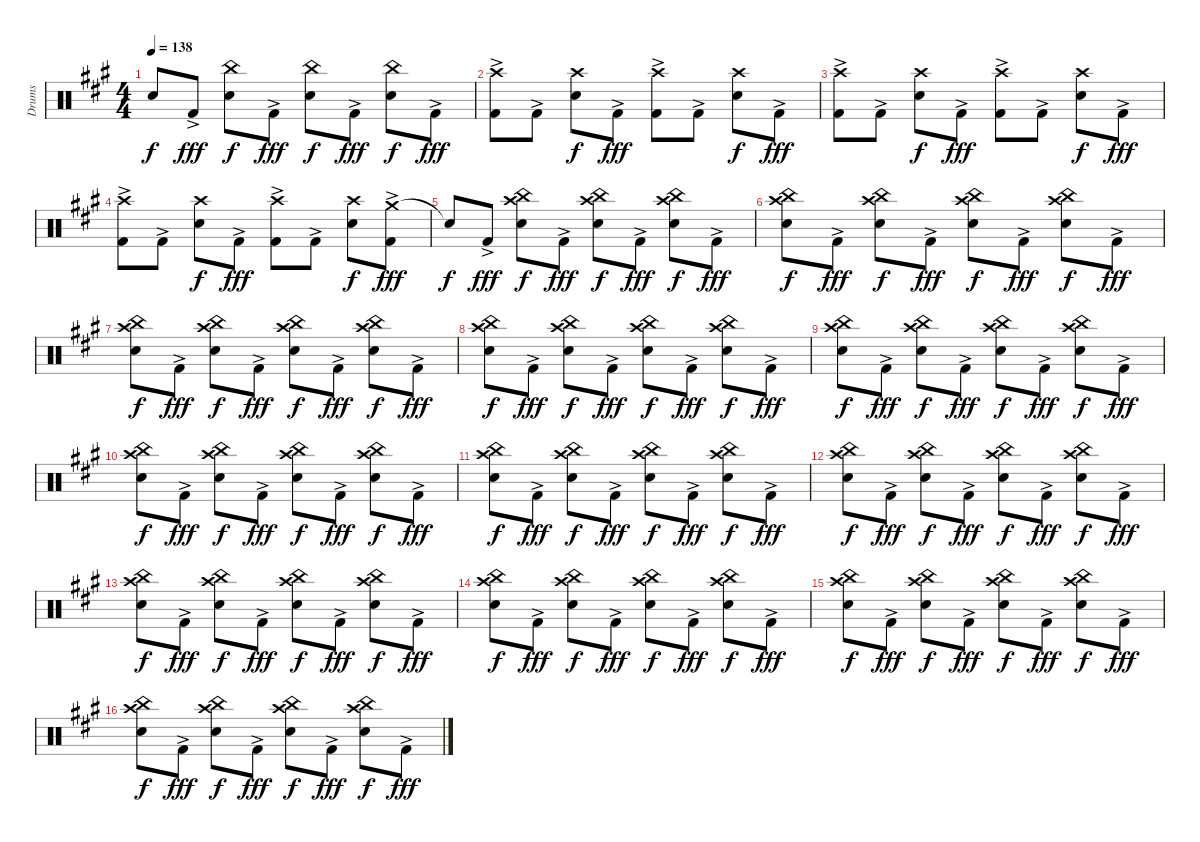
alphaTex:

\track ("Drums" "Drums") {instrument percussion}
\staff {score}
\articulation defaults
\ts (4 4)
\tempo 138
\clef neutral
\ks f#minor "Snare (hit)"{t}.8{dy f} "Kick (hit) 2"{ac}.8{dy fff}
("China (hit)" "Snare (hit) 2").8{dy f} "Kick (hit) 2"{ac}.8{dy fff} ("China (hit)" "Snare (hit) 2").8{dy f} "Kick (hit) 2"{ac}.8{dy fff} ("China (hit)" "Snare (hit) 2").8{dy f} "Kick (hit) 2"{ac}.8{dy fff} |
("Crash high (hit)" "Kick (hit) 2"{ac}).8 "Kick (hit) 2"{ac}.8 ("Crash high (hit)" "Snare (hit) 2").8{dy f} "Kick (hit) 2"{ac}.8{dy fff} ("Crash high (hit)" "Kick (hit) 2"{ac}).8 "Kick (hit) 2"{ac}.8 ("Crash high (hit)" "Snare (hit) 2").8{dy f} "Kick (hit) 2"{ac}.8{dy fff} |
("Crash high (hit)" "Kick (hit) 2"{ac}).8 "Kick (hit) 2"{ac}.8 ("Crash high (hit)" "Snare (hit) 2").8{dy f} "Kick (hit) 2"{ac}.8{dy fff} ("Crash high (hit)" "Kick (hit) 2"{ac}).8 "Kick (hit) 2"{ac}.8 ("Crash high (hit)" "Snare (hit) 2").8{dy f} "Kick (hit) 2"{ac}.8{dy fff} |
("Crash high (hit)" "Kick (hit) 2"{ac}).8 "Kick (hit) 2"{ac}.8 ("Crash high (hit)" "Snare (hit) 2").8{dy f} "Kick (hit) 2"{ac}.8{dy fff} ("Crash high (hit)" "Kick (hit) 2"{ac}).8 "Kick (hit) 2"{ac}.8 ("Crash high (hit)" "Snare (hit) 2").8{dy f} ("Crash medium (hit)" "Kick (hit) 2"{ac}).8{dy fff} |
"Snare (hit)"{t}.8{dy f} "Kick (hit) 2"{ac}.8{dy fff} ("China (hit)" "Crash high (hit)" "Snare (hit) 2").8{dy f} "Kick (hit) 2"{ac}.8{dy fff} ("China (hit)" "Crash high (hit)" "Snare (hit) 2").8{dy f} "Kick (hit) 2"{ac}.8{dy fff} ("China (hit)" "Crash high (hit)" "Snare (hit) 2").8{dy f} "Kick (hit) 2"{ac}.8{dy fff} |
("China (hit)" "Crash high (hit)" "Snare (hit) 2").8{dy f} "Kick (hit) 2"{ac}.8{dy fff} ("China (hit)" "Crash high (hit)" "Snare (hit) 2").8{dy f} "Kick (hit) 2"{ac}.8{dy fff} ("China (hit)" "Crash high (hit)" "Snare (hit) 2").8{dy f} "Kick (hit) 2"{ac}.8{dy fff} ("China (hit)" "Crash high (hit)" "Snare (hit) 2").8{dy f} "Kick (hit) 2"{ac}.8{dy fff} |
("China (hit)" "Crash high (hit)" "Snare (hit) 2").8{dy f} "Kick (hit) 2"{ac}.8{dy fff} ("China (hit)" "Crash high (hit)" "Snare (hit) 2").8{dy f} "Kick (hit) 2"{ac}.8{dy fff} ("China (hit)" "Crash high (hit)" "Snare (hit) 2").8{dy f} "Kick (hit) 2"{ac}.8{dy fff} ("China (hit)" "Crash high (hit)" "Snare (hit) 2").8{dy f} "Kick (hit) 2"{ac}.8{dy fff} |
("China (hit)" "Crash high (hit)" "Snare (hit) 2").8{dy f} "Kick (hit) 2"{ac}.8{dy fff} ("China (hit)" "Crash high (hit)" "Snare (hit) 2").8{dy f} "Kick (hit) 2"{ac}.8{dy fff} ("China (hit)" "Crash high (hit)" "Snare (hit) 2").8{dy f} "Kick (hit) 2"{ac}.8{dy fff} ("China (hit)" "Crash high (hit)" "Snare (hit) 2").8{dy f} "Kick (hit) 2"{ac}.8{dy fff} |
("China (hit)" "Crash high (hit)" "Snare (hit) 2").8{dy f} "Kick (hit) 2"{ac}.8{dy fff} ("China (hit)" "Crash high (hit)" "Snare (hit) 2").8{dy f} "Kick (hit) 2"{ac}.8{dy fff} ("China (hit)" "Crash high (hit)" "Snare (hit) 2").8{dy f} "Kick (hit) 2"{ac}.8{dy fff} ("China (hit)" "Crash high (hit)" "Snare (hit) 2").8{dy f} "Kick (hit) 2"{ac}.8{dy fff} |
("China (hit)" "Crash high (hit)" "Snare (hit) 2").8{dy f} "Kick (hit) 2"{ac}.8{dy fff} ("China (hit)" "Crash high (hit)" "Snare (hit) 2").8{dy f} "Kick (hit) 2"{ac}.8{dy fff} ("China (hit)" "Crash high (hit)" "Snare (hit) 2").8{dy f} "Kick (hit) 2"{ac}.8{dy fff} ("China (hit)" "Crash high (hit)" "Snare (hit) 2").8{dy f} "Kick (hit) 2"{ac}.8{dy fff} |
("China (hit)" "Crash high (hit)" "Snare (hit) 2").8{dy f} "Kick (hit) 2"{ac}.8{dy fff} ("China (hit)" "Crash high (hit)" "Snare (hit) 2").8{dy f} "Kick (hit) 2"{ac}.8{dy fff} ("China (hit)" "Crash high (hit)" "Snare (hit) 2").8{dy f} "Kick (hit) 2"{ac}.8{dy fff} ("China (hit)" "Crash high (hit)" "Snare (hit) 2").8{dy f} "Kick (hit) 2"{ac}.8{dy fff} |
("China (hit)" "Crash high (hit)" "Snare (hit) 2").8{dy f} "Kick (hit) 2"{ac}.8{dy fff} ("China (hit)" "Crash high (hit)" "Snare (hit) 2").8{dy f} "Kick (hit) 2"{ac}.8{dy fff} ("China (hit)" "Crash high (hit)" "Snare (hit) 2").8{dy f} "Kick (hit) 2"{ac}.8{dy fff} ("China (hit)" "Crash high (hit)" "Snare (hit) 2").8{dy f} "Kick (hit) 2"{ac}.8{dy fff} |
("China (hit)" "Crash high (hit)" "Snare (hit) 2").8{dy f} "Kick (hit) 2"{ac}.8{dy fff} ("China (hit)" "Crash high (hit)" "Snare (hit) 2").8{dy f} "Kick (hit) 2"{ac}.8{dy fff} ("China (hit)" "Crash high (hit)" "Snare (hit) 2").8{dy f} "Kick (hit) 2"{ac}.8{dy fff} ("China (hit)" "Crash high (hit)" "Snare (hit) 2").8{dy f} "Kick (hit) 2"{ac}.8{dy fff} |
("China (hit)" "Crash high (hit)" "Snare (hit) 2").8{dy f} "Kick (hit) 2"{ac}.8{dy fff} ("China (hit)" "Crash high (hit)" "Snare (hit) 2").8{dy f} "Kick (hit) 2"{ac}.8{dy fff} ("China (hit)" "Crash high (hit)" "Snare (hit) 2").8{dy f} "Kick (hit) 2"{ac}.8{dy fff} ("China (hit)" "Crash high (hit)" "Snare (hit) 2").8{dy f} "Kick (hit) 2"{ac}.8{dy fff} |
("China (hit)" "Crash high (hit)" "Snare (hit) 2").8{dy f} "Kick (hit) 2"{ac}.8{dy fff} ("China (hit)" "Crash high (hit)" "Snare (hit) 2").8{dy f} "Kick (hit) 2"{ac}.8{dy fff} ("China (hit)" "Crash high (hit)" "Snare (hit) 2").8{dy f} "Kick (hit) 2"{ac}.8{dy fff} ("China (hit)" "Crash high (hit)" "Snare (hit) 2").8{dy f} "Kick (hit) 2"{ac}.8{dy fff} |
("China (hit)" "Crash high (hit)" "Snare (hit) 2").8{dy f} "Kick (hit) 2"{ac}.8{dy fff} ("China (hit)" "Crash high (hit)" "Snare (hit) 2").8{dy f} "Kick (hit) 2"{ac}.8{dy fff} ("China (hit)" "Crash high (hit)" "Snare (hit) 2").8{dy f} "Kick (hit) 2"{ac}.8{dy fff} ("China (hit)" "Crash high (hit)" "Snare (hit) 2").8{dy f} "Kick (hit) 2"{ac}.8{dy fff}
